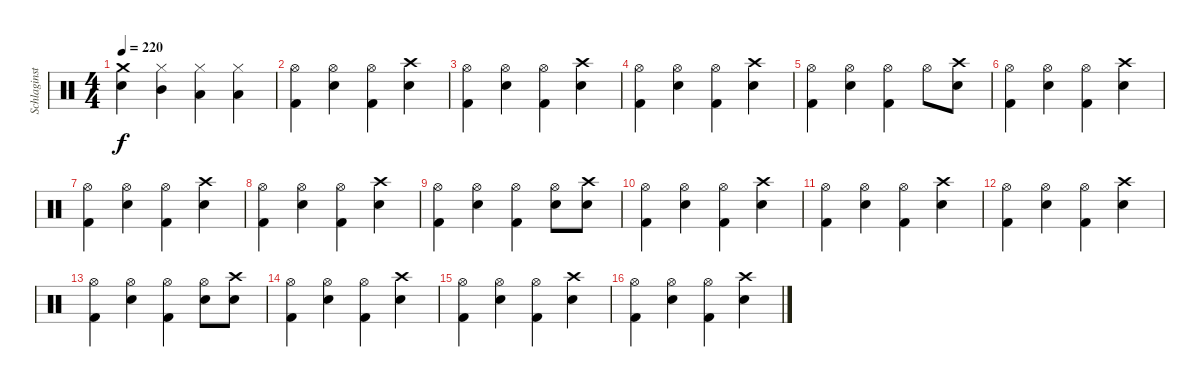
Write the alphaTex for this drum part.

\track ("Schlaginstrumente - Auswahl" "Schlaginst") {instrument percussion}
\staff {score}
\articulation defaults
\ts (4 4)
\tempo 220
\clef neutral
\ks c
("Crash medium (hit)" "Snare (hit) 2").4{dy f} ("Hi-Hat (closed)" "Mid Tom (hit)").4 ("Hi-Hat (closed)" "Low Tom (hit)").4 ("Hi-Hat (closed)" "Low Floor Tom (hit)").4 |
("Hi-Hat (open)" "Kick (hit) 2").4 ("Hi-Hat (open)" "Snare (hit) 2").4 ("Hi-Hat (open)" "Kick (hit) 2").4 ("Crash high (hit)" "Snare (hit) 2").4 |
("Hi-Hat (open)" "Kick (hit) 2").4 ("Hi-Hat (open)" "Snare (hit) 2").4 ("Hi-Hat (open)" "Kick (hit) 2").4 ("Crash high (hit)" "Snare (hit) 2").4 |
("Hi-Hat (open)" "Kick (hit) 2").4 ("Hi-Hat (open)" "Snare (hit) 2").4 ("Hi-Hat (open)" "Kick (hit) 2").4 ("Crash high (hit)" "Snare (hit) 2").4 |
("Hi-Hat (open)" "Kick (hit) 2").4 ("Hi-Hat (open)" "Snare (hit) 2").4 ("Hi-Hat (open)" "Kick (hit) 2").4 "Hi-Hat (open)".8 ("Crash high (hit)" "Snare (hit) 2").8 |
("Hi-Hat (open)" "Kick (hit) 2").4 ("Hi-Hat (open)" "Snare (hit) 2").4 ("Hi-Hat (open)" "Kick (hit) 2").4 ("Crash high (hit)" "Snare (hit) 2").4 |
("Hi-Hat (open)" "Kick (hit) 2").4 ("Hi-Hat (open)" "Snare (hit) 2").4 ("Hi-Hat (open)" "Kick (hit) 2").4 ("Crash high (hit)" "Snare (hit) 2").4 |
("Hi-Hat (open)" "Kick (hit) 2").4 ("Hi-Hat (open)" "Snare (hit) 2").4 ("Hi-Hat (open)" "Kick (hit) 2").4 ("Crash high (hit)" "Snare (hit) 2").4 |
("Hi-Hat (open)" "Kick (hit) 2").4 ("Hi-Hat (open)" "Snare (hit) 2").4 ("Hi-Hat (open)" "Kick (hit) 2").4 ("Hi-Hat (open)" "Snare (hit) 2").8 ("Crash high (hit)" "Snare (hit) 2").8 |
("Hi-Hat (open)" "Kick (hit) 2").4 ("Hi-Hat (open)" "Snare (hit) 2").4 ("Hi-Hat (open)" "Kick (hit) 2").4 ("Crash high (hit)" "Snare (hit) 2").4 |
("Hi-Hat (open)" "Kick (hit) 2").4 ("Hi-Hat (open)" "Snare (hit) 2").4 ("Hi-Hat (open)" "Kick (hit) 2").4 ("Crash high (hit)" "Snare (hit) 2").4 |
("Hi-Hat (open)" "Kick (hit) 2").4 ("Hi-Hat (open)" "Snare (hit) 2").4 ("Hi-Hat (open)" "Kick (hit) 2").4 ("Crash high (hit)" "Snare (hit) 2").4 |
("Hi-Hat (open)" "Kick (hit) 2").4 ("Hi-Hat (open)" "Snare (hit) 2").4 ("Hi-Hat (open)" "Kick (hit) 2").4 ("Hi-Hat (open)" "Snare (hit) 2").8 ("Crash high (hit)" "Snare (hit) 2").8 |
("Hi-Hat (open)" "Kick (hit) 2").4 ("Hi-Hat (open)" "Snare (hit) 2").4 ("Hi-Hat (open)" "Kick (hit) 2").4 ("Crash high (hit)" "Snare (hit) 2").4 |
("Hi-Hat (open)" "Kick (hit) 2").4 ("Hi-Hat (open)" "Snare (hit) 2").4 ("Hi-Hat (open)" "Kick (hit) 2").4 ("Crash high (hit)" "Snare (hit) 2").4 |
("Hi-Hat (open)" "Kick (hit) 2").4 ("Hi-Hat (open)" "Snare (hit) 2").4 ("Hi-Hat (open)" "Kick (hit) 2").4 ("Crash high (hit)" "Snare (hit) 2").4
